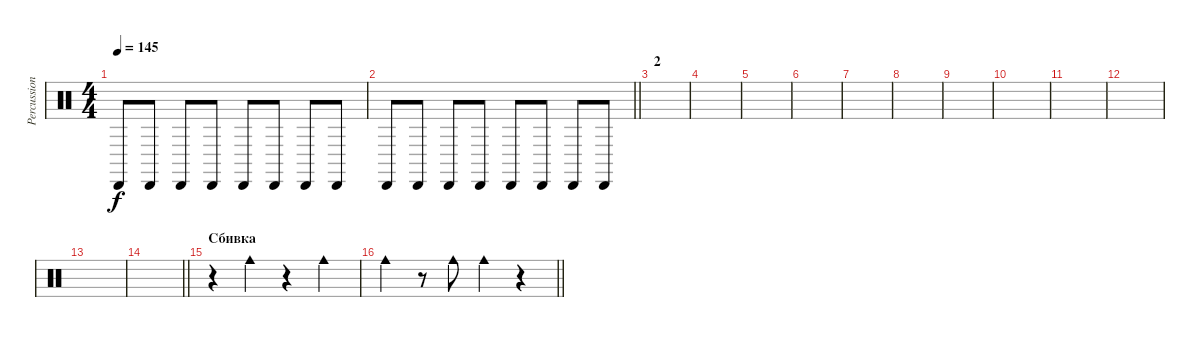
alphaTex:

\track ("Percussion" "Percussion") {instrument percussion}
\staff {score}
\articulation defaults
\ts (4 4)
\tempo 145
\clef neutral
\ks c "Cabasa (hit)".8{dy f} "Cabasa (hit)".8 "Cabasa (hit)".8 "Cabasa (hit)".8 "Cabasa (hit)".8 "Cabasa (hit)".8 "Cabasa (hit)".8 "Cabasa (hit)".8
|
\barLineRight lightlight "Cabasa (hit)".8 "Cabasa (hit)".8 "Cabasa (hit)".8 "Cabasa (hit)".8 "Cabasa (hit)".8 "Cabasa (hit)".8 "Cabasa (hit)".8 "Cabasa (hit)".8
|
\section ("" "2")
|
|
|
|
|
|
|
|
|
|
|
\barLineRight lightlight
|
\section ("" "Сбивка")
r.4 "Cowbell medium (hit)".4 r.4 "Cowbell medium (hit)".4 |
\barLineRight lightlight "Cowbell medium (hit)".4
r.8 "Cowbell medium (hit)".8 "Cowbell medium (hit)".4 r.4
